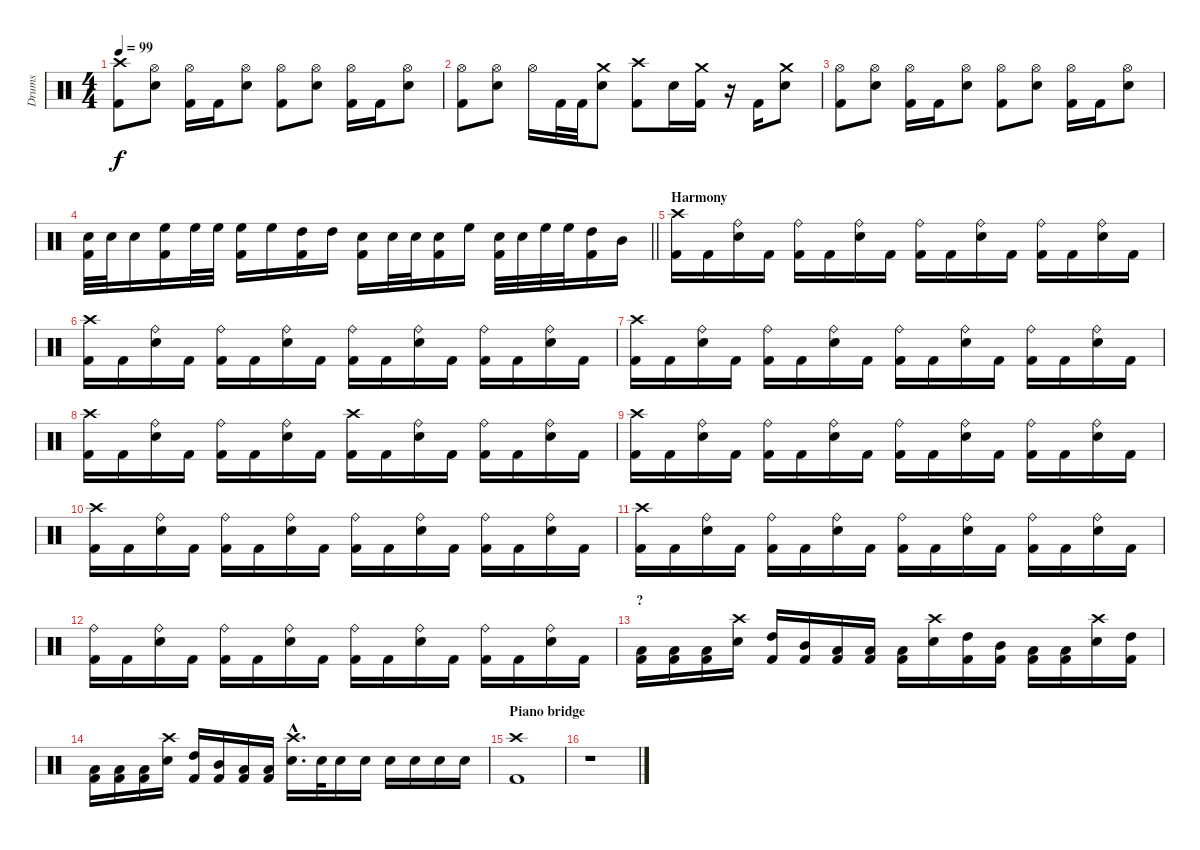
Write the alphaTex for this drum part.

\track ("Drums" "Drums") {instrument percussion}
\staff {score}
\articulation defaults
\ts (4 4)
\tempo 99
\clef neutral
\ks c
("Kick (hit) 2" "Crash high (hit)").8{dy f} ("Electric Snare (hit)" "Hi-Hat (open)").8 ("Kick (hit) 2" "Hi-Hat (open)").16 "Kick (hit) 2".16 ("Electric Snare (hit)" "Hi-Hat (open)").8 ("Kick (hit) 2" "Hi-Hat (open)").8 ("Electric Snare (hit)" "Hi-Hat (open)").8 ("Kick (hit) 2" "Hi-Hat (open)").16 "Kick (hit) 2".16 ("Electric Snare (hit)" "Hi-Hat (open)").8 |
("Kick (hit) 2" "Hi-Hat (open)").8 ("Electric Snare (hit)" "Hi-Hat (open)").8 "Hi-Hat (open)".16 "Kick (hit) 2".32 "Kick (hit) 2".32 ("Electric Snare (hit)" "Crash medium (hit)").8 ("Kick (hit) 2" "Crash high (hit)").8 "Electric Snare (hit)".16 ("Kick (hit) 2" "Crash medium (hit)").16 r.16 "Kick (hit) 2".16 ("Electric Snare (hit)" "Crash medium (hit)").8 |
("Kick (hit) 2" "Hi-Hat (open)").8 ("Electric Snare (hit)" "Hi-Hat (open)").8 ("Kick (hit) 2" "Hi-Hat (open)").16 "Kick (hit) 2".16 ("Electric Snare (hit)" "Hi-Hat (open)").8 ("Kick (hit) 2" "Hi-Hat (open)").8 ("Electric Snare (hit)" "Hi-Hat (open)").8 ("Kick (hit) 2" "Hi-Hat (open)").16 "Kick (hit) 2".16 ("Electric Snare (hit)" "Hi-Hat (open)").8 |
\barLineRight lightlight
("Electric Snare (hit)" "Kick (hit) 2").32 "Electric Snare (hit)".32 "Electric Snare (hit)".16 ("High Floor Tom (hit)" "Kick (hit) 2").16 "High Floor Tom (hit)".32 "High Floor Tom (hit)".32 ("High Floor Tom (hit)" "Kick (hit) 2").16 "High Floor Tom (hit)".16 ("High Tom (hit)" "Kick (hit) 2").16 "High Tom (hit)".16 ("Electric Snare (hit)" "Kick (hit) 2").16 "Electric Snare (hit)".32 "Electric Snare (hit)".32 ("Electric Snare (hit)" "Kick (hit) 2").16 "High Floor Tom (hit)".16 ("Electric Snare (hit)" "Kick (hit) 2").32 "Electric Snare (hit)".32 "High Floor Tom (hit)".32 "High Floor Tom (hit)".32 ("High Tom (hit)" "Kick (hit) 2").16 "Mid Tom (hit)".16 |
\section ("" "Harmony")
("Kick (hit) 2" "Crash high (hit)").16 "Kick (hit) 2".16 ("Electric Snare (hit)" "Ride (bell)").16 "Kick (hit) 2".16 ("Kick (hit) 2" "Ride (bell)").16 "Kick (hit) 2".16 ("Electric Snare (hit)" "Ride (bell)").16 "Kick (hit) 2".16 ("Kick (hit) 2" "Ride (bell)").16 "Kick (hit) 2".16 ("Electric Snare (hit)" "Ride (bell)").16 "Kick (hit) 2".16 ("Kick (hit) 2" "Ride (bell)").16 "Kick (hit) 2".16 ("Electric Snare (hit)" "Ride (bell)").16 "Kick (hit) 2".16 |
("Kick (hit) 2" "Crash high (hit)").16 "Kick (hit) 2".16 ("Electric Snare (hit)" "Ride (bell)").16 "Kick (hit) 2".16 ("Kick (hit) 2" "Ride (bell)").16 "Kick (hit) 2".16 ("Electric Snare (hit)" "Ride (bell)").16 "Kick (hit) 2".16 ("Kick (hit) 2" "Ride (bell)").16 "Kick (hit) 2".16 ("Electric Snare (hit)" "Ride (bell)").16 "Kick (hit) 2".16 ("Kick (hit) 2" "Ride (bell)").16 "Kick (hit) 2".16 ("Electric Snare (hit)" "Ride (bell)").16 "Kick (hit) 2".16 |
("Kick (hit) 2" "Crash high (hit)").16 "Kick (hit) 2".16 ("Electric Snare (hit)" "Ride (bell)").16 "Kick (hit) 2".16 ("Kick (hit) 2" "Ride (bell)").16 "Kick (hit) 2".16 ("Electric Snare (hit)" "Ride (bell)").16 "Kick (hit) 2".16 ("Kick (hit) 2" "Ride (bell)").16 "Kick (hit) 2".16 ("Electric Snare (hit)" "Ride (bell)").16 "Kick (hit) 2".16 ("Kick (hit) 2" "Ride (bell)").16 "Kick (hit) 2".16 ("Electric Snare (hit)" "Ride (bell)").16 "Kick (hit) 2".16 |
("Kick (hit) 2" "Crash high (hit)").16 "Kick (hit) 2".16 ("Electric Snare (hit)" "Ride (bell)").16 "Kick (hit) 2".16 ("Kick (hit) 2" "Ride (bell)").16 "Kick (hit) 2".16 ("Electric Snare (hit)" "Ride (bell)").16 "Kick (hit) 2".16 ("Kick (hit) 2" "Crash high (hit)").16 "Kick (hit) 2".16 ("Electric Snare (hit)" "Ride (bell)").16 "Kick (hit) 2".16 ("Kick (hit) 2" "Ride (bell)").16 "Kick (hit) 2".16 ("Electric Snare (hit)" "Ride (bell)").16 "Kick (hit) 2".16 |
("Kick (hit) 2" "Crash high (hit)").16 "Kick (hit) 2".16 ("Electric Snare (hit)" "Ride (bell)").16 "Kick (hit) 2".16 ("Kick (hit) 2" "Ride (bell)").16 "Kick (hit) 2".16 ("Electric Snare (hit)" "Ride (bell)").16 "Kick (hit) 2".16 ("Kick (hit) 2" "Ride (bell)").16 "Kick (hit) 2".16 ("Electric Snare (hit)" "Ride (bell)").16 "Kick (hit) 2".16 ("Kick (hit) 2" "Ride (bell)").16 "Kick (hit) 2".16 ("Electric Snare (hit)" "Ride (bell)").16 "Kick (hit) 2".16 |
("Kick (hit) 2" "Crash high (hit)").16 "Kick (hit) 2".16 ("Electric Snare (hit)" "Ride (bell)").16 "Kick (hit) 2".16 ("Kick (hit) 2" "Ride (bell)").16 "Kick (hit) 2".16 ("Electric Snare (hit)" "Ride (bell)").16 "Kick (hit) 2".16 ("Kick (hit) 2" "Ride (bell)").16 "Kick (hit) 2".16 ("Electric Snare (hit)" "Ride (bell)").16 "Kick (hit) 2".16 ("Kick (hit) 2" "Ride (bell)").16 "Kick (hit) 2".16 ("Electric Snare (hit)" "Ride (bell)").16 "Kick (hit) 2".16 |
("Kick (hit) 2" "Crash high (hit)").16 "Kick (hit) 2".16 ("Electric Snare (hit)" "Ride (bell)").16 "Kick (hit) 2".16 ("Kick (hit) 2" "Ride (bell)").16 "Kick (hit) 2".16 ("Electric Snare (hit)" "Ride (bell)").16 "Kick (hit) 2".16 ("Kick (hit) 2" "Ride (bell)").16 "Kick (hit) 2".16 ("Electric Snare (hit)" "Ride (bell)").16 "Kick (hit) 2".16 ("Kick (hit) 2" "Ride (bell)").16 "Kick (hit) 2".16 ("Electric Snare (hit)" "Ride (bell)").16 "Kick (hit) 2".16 |
("Kick (hit) 2" "Ride (bell)").16 "Kick (hit) 2".16 ("Electric Snare (hit)" "Ride (bell)").16 "Kick (hit) 2".16 ("Kick (hit) 2" "Ride (bell)").16 "Kick (hit) 2".16 ("Electric Snare (hit)" "Ride (bell)").16 "Kick (hit) 2".16 ("Kick (hit) 2" "Ride (bell)").16 "Kick (hit) 2".16 ("Electric Snare (hit)" "Ride (bell)").16 "Kick (hit) 2".16 ("Kick (hit) 2" "Ride (bell)").16 "Kick (hit) 2".16 ("Electric Snare (hit)" "Ride (bell)").16 "Kick (hit) 2".16 |
\section ("" "?")
("Kick (hit) 2" "Low Tom (hit)").16 ("Kick (hit) 2" "Low Tom (hit)").16 ("Kick (hit) 2" "Low Tom (hit)").16 ("Electric Snare (hit)" "Crash high (hit)").16 ("Kick (hit) 2" "High Tom (hit)").16 ("Kick (hit) 2" "Mid Tom (hit)").16 ("Kick (hit) 2" "Low Tom (hit)").16 ("Kick (hit) 2" "Low Tom (hit)").16 ("Kick (hit) 2" "Low Tom (hit)").16 ("Electric Snare (hit)" "Crash high (hit)").16 ("Kick (hit) 2" "High Tom (hit)").16 ("Kick (hit) 2" "Mid Tom (hit)").16 ("Kick (hit) 2" "Low Tom (hit)").16 ("Kick (hit) 2" "Low Tom (hit)").16 ("Electric Snare (hit)" "Crash high (hit)").16 ("Kick (hit) 2" "High Tom (hit)").16 |
("Kick (hit) 2" "Low Tom (hit)").16 ("Kick (hit) 2" "Low Tom (hit)").16 ("Kick (hit) 2" "Low Tom (hit)").16 ("Electric Snare (hit)" "Crash high (hit)").16 ("Kick (hit) 2" "High Tom (hit)").16 ("Kick (hit) 2" "Mid Tom (hit)").16 ("Kick (hit) 2" "Low Tom (hit)").16 ("Kick (hit) 2" "Low Tom (hit)").16 ("Electric Snare (hit)"{hac} "Crash high (hit)"{hac}).16{d} "Electric Snare (hit)".32 "Electric Snare (hit)".16 "Electric Snare (hit)".16 "Electric Snare (hit)".16 "Electric Snare (hit)".16 "Electric Snare (hit)".16 "Electric Snare (hit)".16 |
\section ("" "Piano bridge")
("Kick (hit) 2" "Crash high (hit)").1 |
r.1
